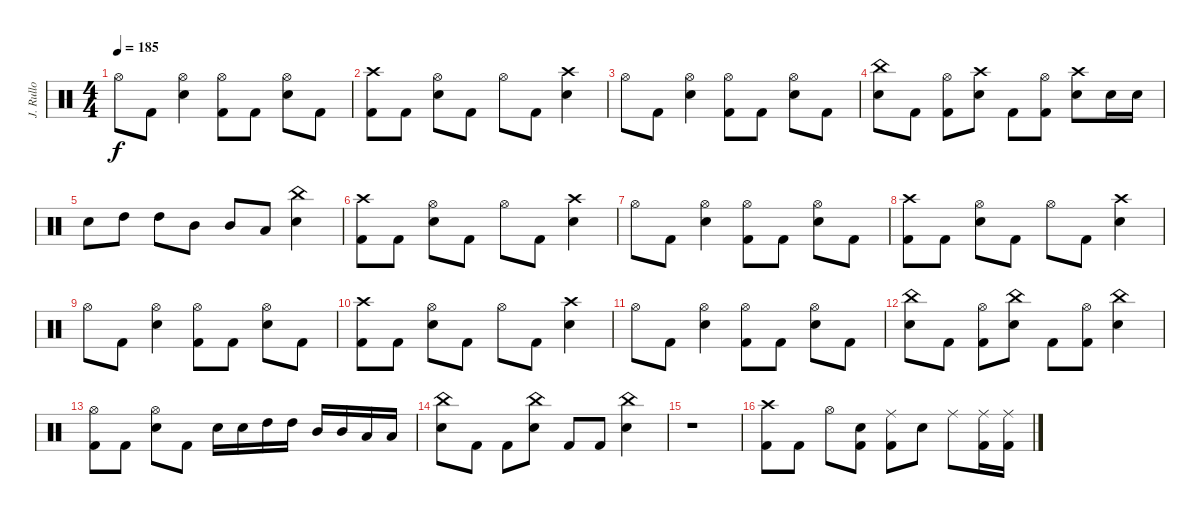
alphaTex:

\track ("J. Rullo" "J. Rullo") {instrument percussion}
\staff {score}
\articulation defaults
\ts (4 4)
\tempo 185
\clef neutral
\ks c "Hi-Hat (open)".8{dy f} "Kick (hit) 2".8
("Hi-Hat (open)" "Snare (hit) 2").4 ("Hi-Hat (open)" "Kick (hit) 2").8 "Kick (hit) 2".8 ("Hi-Hat (open)" "Snare (hit) 2").8 "Kick (hit) 2".8 |
("Crash high (hit)" "Kick (hit) 2").8 "Kick (hit) 2".8 ("Hi-Hat (open)" "Snare (hit) 2").8 "Kick (hit) 2".8 "Hi-Hat (open)".8 "Kick (hit) 2".8 ("Crash high (hit)" "Snare (hit) 2").4 |
"Hi-Hat (open)".8 "Kick (hit) 2".8 ("Hi-Hat (open)" "Snare (hit) 2").4 ("Hi-Hat (open)" "Kick (hit) 2").8 "Kick (hit) 2".8 ("Hi-Hat (open)" "Snare (hit) 2").8 "Kick (hit) 2".8 |
("China (hit)" "Snare (hit) 2").8 "Kick (hit) 2".8 ("Hi-Hat (open)" "Kick (hit) 2").8 ("Crash high (hit)" "Snare (hit) 2").8 "Kick (hit) 2".8 ("Hi-Hat (open)" "Kick (hit) 2").8 ("Crash high (hit)" "Snare (hit) 2").8 "Snare (hit) 2".16 "Snare (hit) 2".16 |
"Snare (hit) 2".8 "High Tom (hit)".8 "High Tom (hit)".8 "Mid Tom (hit)".8 "Mid Tom (hit)".8 "Low Tom (hit)".8 ("China (hit)" "Snare (hit) 2").4 |
("Crash high (hit)" "Kick (hit) 2").8 "Kick (hit) 2".8 ("Hi-Hat (open)" "Snare (hit) 2").8 "Kick (hit) 2".8 "Hi-Hat (open)".8 "Kick (hit) 2".8 ("Crash high (hit)" "Snare (hit) 2").4 |
"Hi-Hat (open)".8 "Kick (hit) 2".8 ("Hi-Hat (open)" "Snare (hit) 2").4 ("Hi-Hat (open)" "Kick (hit) 2").8 "Kick (hit) 2".8 ("Hi-Hat (open)" "Snare (hit) 2").8 "Kick (hit) 2".8 |
("Crash high (hit)" "Kick (hit) 2").8 "Kick (hit) 2".8 ("Hi-Hat (open)" "Snare (hit) 2").8 "Kick (hit) 2".8 "Hi-Hat (open)".8 "Kick (hit) 2".8 ("Crash high (hit)" "Snare (hit) 2").4 |
"Hi-Hat (open)".8 "Kick (hit) 2".8 ("Hi-Hat (open)" "Snare (hit) 2").4 ("Hi-Hat (open)" "Kick (hit) 2").8 "Kick (hit) 2".8 ("Hi-Hat (open)" "Snare (hit) 2").8 "Kick (hit) 2".8 |
("Crash high (hit)" "Kick (hit) 2").8 "Kick (hit) 2".8 ("Hi-Hat (open)" "Snare (hit) 2").8 "Kick (hit) 2".8 "Hi-Hat (open)".8 "Kick (hit) 2".8 ("Crash high (hit)" "Snare (hit) 2").4 |
"Hi-Hat (open)".8 "Kick (hit) 2".8 ("Hi-Hat (open)" "Snare (hit) 2").4 ("Hi-Hat (open)" "Kick (hit) 2").8 "Kick (hit) 2".8 ("Hi-Hat (open)" "Snare (hit) 2").8 "Kick (hit) 2".8 |
("China (hit)" "Snare (hit) 2").8 "Kick (hit) 2".8 ("Hi-Hat (open)" "Kick (hit) 2").8 ("China (hit)" "Snare (hit) 2").8 "Kick (hit) 2".8 ("Hi-Hat (open)" "Kick (hit) 2").8 ("China (hit)" "Snare (hit) 2").4 |
("Hi-Hat (open)" "Kick (hit) 2").8 "Kick (hit) 2".8 ("Hi-Hat (open)" "Snare (hit) 2").8 "Kick (hit) 2".8 "Snare (hit) 2".16 "Snare (hit) 2".16 "High Tom (hit)".16 "High Tom (hit)".16 "Mid Tom (hit)".16 "Mid Tom (hit)".16 "Low Tom (hit)".16 "Low Tom (hit)".16 |
("China (hit)" "Snare (hit) 2").8 "Kick (hit) 2".8 "Kick (hit) 2".8 ("China (hit)" "Snare (hit) 2").8 "Kick (hit) 2".8 "Kick (hit) 2".8 ("China (hit)" "Snare (hit) 2").4 |
r.1 |
("Crash high (hit)" "Kick (hit) 2").8 "Kick (hit) 2".8 "Hi-Hat (open)".8 ("Snare (hit) 2" "Kick (hit) 2").8 ("Ride (middle)" "Kick (hit) 2").8 "Snare (hit) 2".8 "Ride (middle)".8 ("Ride (middle)" "Kick (hit) 2").16 ("Ride (middle)" "Kick (hit) 2").16
